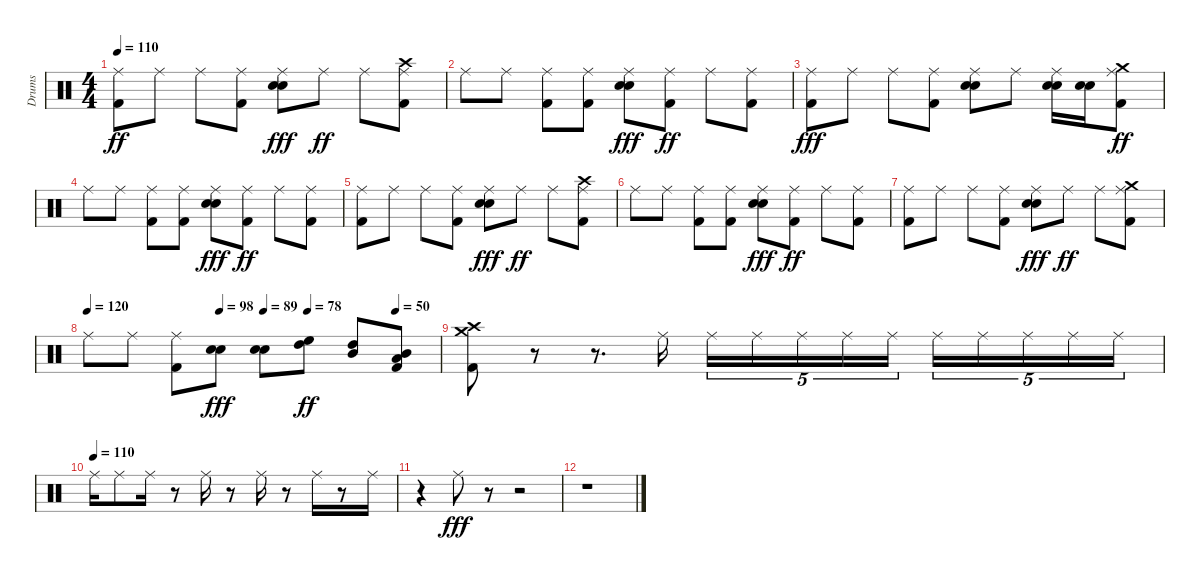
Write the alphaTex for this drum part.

\track ("Drums" "Drums") {instrument percussion}
\staff {score}
\articulation defaults
\ts (4 4)
\tempo 110
\clef neutral
\ks c
("Kick (hit) 2" "Ride (middle)").8{dy ff} "Ride (middle)".8 "Ride (middle)".8 ("Kick (hit) 2" "Ride (middle)").8 ("Ride (middle)" "Snare (hit) 2" "Electric Snare (hit)").8{dy fff} "Ride (middle)".8{dy ff} "Ride (middle)".8 ("Kick (hit) 2" "Ride (middle)" "Crash high (hit)").8 |
"Ride (middle)".8 "Ride (middle)".8 ("Ride (middle)" "Kick (hit) 2").8 ("Kick (hit) 2" "Ride (middle)").8 ("Ride (middle)" "Snare (hit) 2" "Electric Snare (hit)").8{dy fff} ("Ride (middle)" "Kick (hit) 2").8{dy ff} "Ride (middle)".8 ("Kick (hit) 2" "Ride (middle)").8 |
("Kick (hit) 2" "Ride (middle)").8{dy fff} "Ride (middle)".8 "Ride (middle)".8 ("Kick (hit) 2" "Ride (middle)").8 ("Ride (middle)" "Snare (hit) 2" "Electric Snare (hit)").8 "Ride (middle)".8 ("Ride (middle)" "Snare (hit) 2" "Electric Snare (hit)").16 ("Snare (hit) 2" "Electric Snare (hit)").16 ("Ride (middle)" "Kick (hit) 2" "Crash medium (hit)").8{dy ff} |
"Ride (middle)".8 "Ride (middle)".8 ("Ride (middle)" "Kick (hit) 2").8 ("Kick (hit) 2" "Ride (middle)").8 ("Ride (middle)" "Snare (hit) 2" "Electric Snare (hit)").8{dy fff} ("Ride (middle)" "Kick (hit) 2").8{dy ff} "Ride (middle)".8 ("Kick (hit) 2" "Ride (middle)").8 |
("Kick (hit) 2" "Ride (middle)").8 "Ride (middle)".8 "Ride (middle)".8 ("Kick (hit) 2" "Ride (middle)").8 ("Ride (middle)" "Snare (hit) 2" "Electric Snare (hit)").8{dy fff} "Ride (middle)".8{dy ff} "Ride (middle)".8 ("Kick (hit) 2" "Ride (middle)" "Crash high (hit)").8 |
"Ride (middle)".8 "Ride (middle)".8 ("Ride (middle)" "Kick (hit) 2").8 ("Kick (hit) 2" "Ride (middle)").8 ("Ride (middle)" "Snare (hit) 2" "Electric Snare (hit)").8{dy fff} ("Ride (middle)" "Kick (hit) 2").8{dy ff} "Ride (middle)".8 ("Kick (hit) 2" "Ride (middle)").8 |
("Ride (middle)" "Kick (hit) 2").8 "Ride (middle)".8 "Ride (middle)".8 ("Ride (middle)" "Kick (hit) 2").8 ("Ride (middle)" "Snare (hit) 2" "Electric Snare (hit)").8{dy fff} "Ride (middle)".8{dy ff} "Ride (middle)".8 ("Kick (hit) 2" "Crash medium (hit)" "Ride (middle)").8 |
\tempo 120
\tempo (98 0.375)
\tempo (89 0.5)
\tempo (78 0.625)
\tempo (50 0.875)
"Ride (middle)".8 "Ride (middle)".8 ("Ride (middle)" "Kick (hit) 2").8 ("Snare (hit) 2" "Electric Snare (hit)").8{dy fff} ("Snare (hit) 2" "Electric Snare (hit)").8 ("High Tom (hit)" "High Floor Tom (hit)").8{dy ff} ("Mid Tom (hit)" "High Tom (hit)").8 ("Low Tom (hit)" "Kick (hit) 2" "Mid Tom (hit)").8 |
("Kick (hit) 2" "Crash high (hit)" "Crash medium (hit)").8 r.8 r.8{d} "Ride (middle)".16 "Ride (middle)".16{tu (5 4)} "Ride (middle)".16{tu (5 4)} "Ride (middle)".16{tu (5 4)} "Ride (middle)".16{tu (5 4)} "Ride (middle)".16{tu (5 4)} "Ride (middle)".16{tu (5 4)} "Ride (middle)".16{tu (5 4)} "Ride (middle)".16{tu (5 4)} "Ride (middle)".16{tu (5 4)} "Ride (middle)".16{tu (5 4)} |
\tempo (110)
"Ride (middle)".16 "Ride (middle)".8 "Ride (middle)".16 r.8 "Ride (middle)".16 r.8 "Ride (middle)".16 r.8 "Ride (middle)".16 r.8 "Ride (middle)".16 |
r.4 "Ride (middle)".8{dy fff} r.8 r.2 |
r.1
